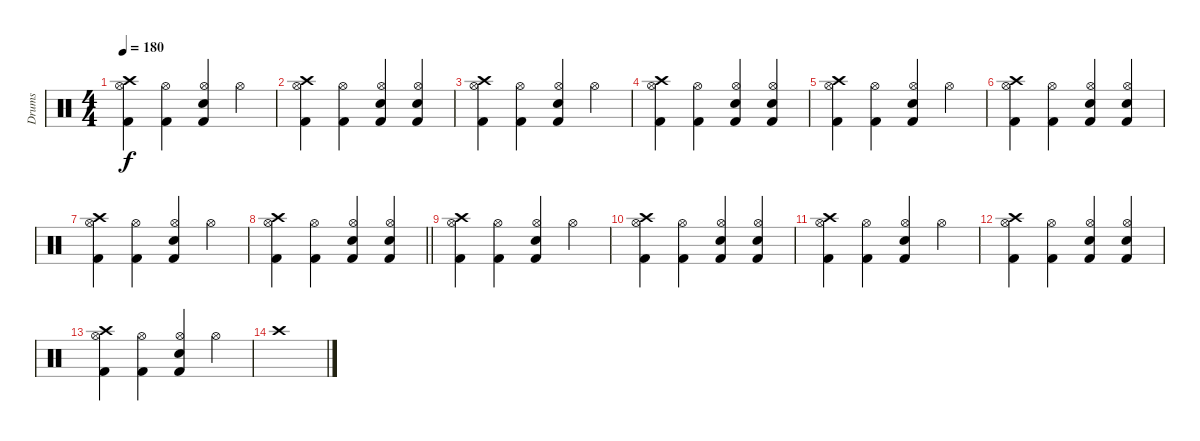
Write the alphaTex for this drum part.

\track ("Drums" "Drums") {instrument percussion}
\staff {score}
\articulation defaults
\ts (4 4)
\tempo 180
\clef neutral
\ks c
("Kick (hit) 2" "Crash high (hit)" "Hi-Hat (open)").4{dy f} ("Kick (hit) 2" "Hi-Hat (open)").4 ("Electric Snare (hit)" "Kick (hit) 2" "Hi-Hat (open)").4 "Hi-Hat (open)".4 |
("Kick (hit) 2" "Crash high (hit)" "Hi-Hat (open)").4 ("Kick (hit) 2" "Hi-Hat (open)").4 ("Electric Snare (hit)" "Kick (hit) 2" "Hi-Hat (open)").4 ("Electric Snare (hit)" "Kick (hit) 2" "Hi-Hat (open)").4 |
("Kick (hit) 2" "Crash high (hit)" "Hi-Hat (open)").4 ("Kick (hit) 2" "Hi-Hat (open)").4 ("Electric Snare (hit)" "Kick (hit) 2" "Hi-Hat (open)").4 "Hi-Hat (open)".4 |
("Kick (hit) 2" "Crash high (hit)" "Hi-Hat (open)").4 ("Kick (hit) 2" "Hi-Hat (open)").4 ("Electric Snare (hit)" "Kick (hit) 2" "Hi-Hat (open)").4 ("Electric Snare (hit)" "Kick (hit) 2" "Hi-Hat (open)").4 |
("Kick (hit) 2" "Crash high (hit)" "Hi-Hat (open)").4 ("Kick (hit) 2" "Hi-Hat (open)").4 ("Electric Snare (hit)" "Kick (hit) 2" "Hi-Hat (open)").4 "Hi-Hat (open)".4 |
("Kick (hit) 2" "Crash high (hit)" "Hi-Hat (open)").4 ("Kick (hit) 2" "Hi-Hat (open)").4 ("Electric Snare (hit)" "Kick (hit) 2" "Hi-Hat (open)").4 ("Electric Snare (hit)" "Kick (hit) 2" "Hi-Hat (open)").4 |
("Kick (hit) 2" "Crash high (hit)" "Hi-Hat (open)").4 ("Kick (hit) 2" "Hi-Hat (open)").4 ("Electric Snare (hit)" "Kick (hit) 2" "Hi-Hat (open)").4 "Hi-Hat (open)".4 |
\barLineRight lightlight
("Kick (hit) 2" "Crash high (hit)" "Hi-Hat (open)").4 ("Kick (hit) 2" "Hi-Hat (open)").4 ("Electric Snare (hit)" "Kick (hit) 2" "Hi-Hat (open)").4 ("Electric Snare (hit)" "Kick (hit) 2" "Hi-Hat (open)").4 |
("Kick (hit) 2" "Crash high (hit)" "Hi-Hat (open)").4 ("Kick (hit) 2" "Hi-Hat (open)").4 ("Electric Snare (hit)" "Kick (hit) 2" "Hi-Hat (open)").4 "Hi-Hat (open)".4 |
("Kick (hit) 2" "Crash high (hit)" "Hi-Hat (open)").4 ("Kick (hit) 2" "Hi-Hat (open)").4 ("Electric Snare (hit)" "Kick (hit) 2" "Hi-Hat (open)").4 ("Electric Snare (hit)" "Kick (hit) 2" "Hi-Hat (open)").4 |
("Kick (hit) 2" "Crash high (hit)" "Hi-Hat (open)").4 ("Kick (hit) 2" "Hi-Hat (open)").4 ("Electric Snare (hit)" "Kick (hit) 2" "Hi-Hat (open)").4 "Hi-Hat (open)".4 |
("Kick (hit) 2" "Crash high (hit)" "Hi-Hat (open)").4 ("Kick (hit) 2" "Hi-Hat (open)").4 ("Electric Snare (hit)" "Kick (hit) 2" "Hi-Hat (open)").4 ("Electric Snare (hit)" "Kick (hit) 2" "Hi-Hat (open)").4 |
("Kick (hit) 2" "Crash high (hit)" "Hi-Hat (open)").4 ("Kick (hit) 2" "Hi-Hat (open)").4 ("Electric Snare (hit)" "Kick (hit) 2" "Hi-Hat (open)").4 "Hi-Hat (open)".4 |
"Crash high (hit)".1
